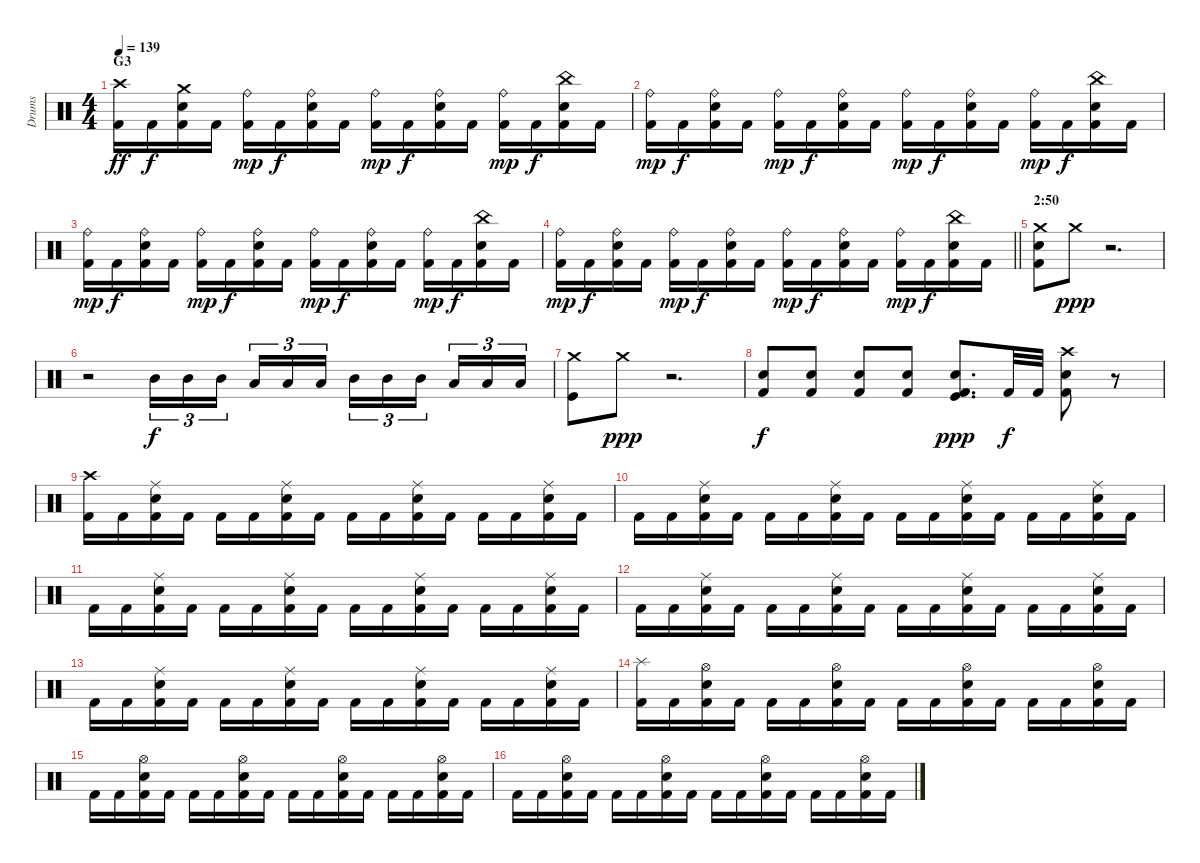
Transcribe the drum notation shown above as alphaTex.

\track ("Drums" "Drums") {instrument percussion}
\staff {score}
\articulation defaults
\ts (4 4)
\section ("" "G3")
\tempo 139
\clef neutral
\ks c
("Crash high (hit)" "Kick (hit) 2").16{dy ff} "Kick (hit) 2".16{dy f} ("Crash medium (hit)" "Electric Snare (hit)" "Kick (hit) 2").16 "Kick (hit) 2".16 ("Ride (bell)" "Kick (hit) 2").16{dy mp} "Kick (hit) 2".16{dy f} ("Ride (bell)" "Electric Snare (hit)" "Kick (hit) 2").16 "Kick (hit) 2".16 ("Ride (bell)" "Kick (hit) 2").16{dy mp} "Kick (hit) 2".16{dy f} ("Ride (bell)" "Electric Snare (hit)" "Kick (hit) 2").16 "Kick (hit) 2".16 ("Ride (bell)" "Kick (hit) 2").16{dy mp} "Kick (hit) 2".16{dy f} ("China (hit)" "Electric Snare (hit)" "Kick (hit) 2").16 "Kick (hit) 2".16 |
("Ride (bell)" "Kick (hit) 2").16{dy mp} "Kick (hit) 2".16{dy f} ("Ride (bell)" "Electric Snare (hit)" "Kick (hit) 2").16 "Kick (hit) 2".16 ("Ride (bell)" "Kick (hit) 2").16{dy mp} "Kick (hit) 2".16{dy f} ("Ride (bell)" "Electric Snare (hit)" "Kick (hit) 2").16 "Kick (hit) 2".16 ("Ride (bell)" "Kick (hit) 2").16{dy mp} "Kick (hit) 2".16{dy f} ("Ride (bell)" "Electric Snare (hit)" "Kick (hit) 2").16 "Kick (hit) 2".16 ("Ride (bell)" "Kick (hit) 2").16{dy mp} "Kick (hit) 2".16{dy f} ("China (hit)" "Electric Snare (hit)" "Kick (hit) 2").16 "Kick (hit) 2".16 |
("Ride (bell)" "Kick (hit) 2").16{dy mp} "Kick (hit) 2".16{dy f} ("Ride (bell)" "Electric Snare (hit)" "Kick (hit) 2").16 "Kick (hit) 2".16 ("Ride (bell)" "Kick (hit) 2").16{dy mp} "Kick (hit) 2".16{dy f} ("Ride (bell)" "Electric Snare (hit)" "Kick (hit) 2").16 "Kick (hit) 2".16 ("Ride (bell)" "Kick (hit) 2").16{dy mp} "Kick (hit) 2".16{dy f} ("Ride (bell)" "Electric Snare (hit)" "Kick (hit) 2").16 "Kick (hit) 2".16 ("Ride (bell)" "Kick (hit) 2").16{dy mp} "Kick (hit) 2".16{dy f} ("China (hit)" "Electric Snare (hit)" "Kick (hit) 2").16 "Kick (hit) 2".16 |
\barLineRight lightlight
("Ride (bell)" "Kick (hit) 2").16{dy mp} "Kick (hit) 2".16{dy f} ("Ride (bell)" "Electric Snare (hit)" "Kick (hit) 2").16 "Kick (hit) 2".16 ("Ride (bell)" "Kick (hit) 2").16{dy mp} "Kick (hit) 2".16{dy f} ("Ride (bell)" "Electric Snare (hit)" "Kick (hit) 2").16 "Kick (hit) 2".16 ("Ride (bell)" "Kick (hit) 2").16{dy mp} "Kick (hit) 2".16{dy f} ("Ride (bell)" "Electric Snare (hit)" "Kick (hit) 2").16 "Kick (hit) 2".16 ("Ride (bell)" "Kick (hit) 2").16{dy mp} "Kick (hit) 2".16{dy f} ("China (hit)" "Electric Snare (hit)" "Kick (hit) 2").16 "Kick (hit) 2".16 |
\section ("" "2:50")
("Crash medium (hit)" "Snare (hit) 2" "Kick (hit) 2").8 "Crash medium (hit)".8{dy ppp} r.2{d} |
r.2 "Mid Tom (hit)".16{tu (3 2) dy f} "Mid Tom (hit)".16{tu (3 2)} "Mid Tom (hit)".16{tu (3 2) beam splitsecondary} "Low Tom (hit)".16{tu (3 2)} "Low Tom (hit)".16{tu (3 2)} "Low Tom (hit)".16{tu (3 2)} "Mid Tom (hit)".16{tu (3 2)} "Mid Tom (hit)".16{tu (3 2)} "Mid Tom (hit)".16{tu (3 2) beam splitsecondary} "Low Tom (hit)".16{tu (3 2)} "Low Tom (hit)".16{tu (3 2)} "Low Tom (hit)".16{tu (3 2)} |
("Kick (hit)" "Crash medium (hit)").8 "Crash medium (hit)".8{dy ppp} r.2{d} |
("Kick (hit) 2" "Electric Snare (hit)").8{dy f} ("Kick (hit) 2" "Electric Snare (hit)").8 ("Kick (hit) 2" "Snare (hit) 2").8 ("Snare (hit) 2" "Kick (hit) 2").8 ("Snare (hit) 2" "Kick (hit)" "Kick (hit) 2").8{d dy ppp} "Kick (hit) 2".32{dy f} "Kick (hit) 2".32 ("Snare (hit) 2" "Crash high (hit)" "Kick (hit) 2").8 r.8 |
("Crash high (hit)" "Kick (hit) 2").16 "Kick (hit) 2".16 ("Ride (middle)" "Electric Snare (hit)" "Kick (hit) 2").16 "Kick (hit) 2".16 "Kick (hit) 2".16 "Kick (hit) 2".16 ("Ride (middle)" "Electric Snare (hit)" "Kick (hit) 2").16 "Kick (hit) 2".16 "Kick (hit) 2".16 "Kick (hit) 2".16 ("Ride (middle)" "Electric Snare (hit)" "Kick (hit) 2").16 "Kick (hit) 2".16 "Kick (hit) 2".16 "Kick (hit) 2".16 ("Ride (middle)" "Electric Snare (hit)" "Kick (hit) 2").16 "Kick (hit) 2".16 |
"Kick (hit) 2".16 "Kick (hit) 2".16 ("Ride (middle)" "Electric Snare (hit)" "Kick (hit) 2").16 "Kick (hit) 2".16 "Kick (hit) 2".16 "Kick (hit) 2".16 ("Ride (middle)" "Electric Snare (hit)" "Kick (hit) 2").16 "Kick (hit) 2".16 "Kick (hit) 2".16 "Kick (hit) 2".16 ("Ride (middle)" "Electric Snare (hit)" "Kick (hit) 2").16 "Kick (hit) 2".16 "Kick (hit) 2".16 "Kick (hit) 2".16 ("Ride (middle)" "Electric Snare (hit)" "Kick (hit) 2").16 "Kick (hit) 2".16 |
"Kick (hit) 2".16 "Kick (hit) 2".16 ("Ride (middle)" "Electric Snare (hit)" "Kick (hit) 2").16 "Kick (hit) 2".16 "Kick (hit) 2".16 "Kick (hit) 2".16 ("Ride (middle)" "Electric Snare (hit)" "Kick (hit) 2").16 "Kick (hit) 2".16 "Kick (hit) 2".16 "Kick (hit) 2".16 ("Ride (middle)" "Electric Snare (hit)" "Kick (hit) 2").16 "Kick (hit) 2".16 "Kick (hit) 2".16 "Kick (hit) 2".16 ("Ride (middle)" "Electric Snare (hit)" "Kick (hit) 2").16 "Kick (hit) 2".16 |
"Kick (hit) 2".16 "Kick (hit) 2".16 ("Ride (middle)" "Electric Snare (hit)" "Kick (hit) 2").16 "Kick (hit) 2".16 "Kick (hit) 2".16 "Kick (hit) 2".16 ("Ride (middle)" "Electric Snare (hit)" "Kick (hit) 2").16 "Kick (hit) 2".16 "Kick (hit) 2".16 "Kick (hit) 2".16 ("Ride (middle)" "Electric Snare (hit)" "Kick (hit) 2").16 "Kick (hit) 2".16 "Kick (hit) 2".16 "Kick (hit) 2".16 ("Ride (middle)" "Electric Snare (hit)" "Kick (hit) 2").16 "Kick (hit) 2".16 |
"Kick (hit) 2".16 "Kick (hit) 2".16 ("Ride (middle)" "Electric Snare (hit)" "Kick (hit) 2").16 "Kick (hit) 2".16 "Kick (hit) 2".16 "Kick (hit) 2".16 ("Ride (middle)" "Electric Snare (hit)" "Kick (hit) 2").16 "Kick (hit) 2".16 "Kick (hit) 2".16 "Kick (hit) 2".16 ("Ride (middle)" "Electric Snare (hit)" "Kick (hit) 2").16 "Kick (hit) 2".16 "Kick (hit) 2".16 "Kick (hit) 2".16 ("Ride (middle)" "Electric Snare (hit)" "Kick (hit) 2").16 "Kick (hit) 2".16 |
("Splash (hit)" "Kick (hit) 2").16 "Kick (hit) 2".16 ("Hi-Hat (open)" "Electric Snare (hit)" "Kick (hit) 2").16 "Kick (hit) 2".16 "Kick (hit) 2".16 "Kick (hit) 2".16 ("Hi-Hat (open)" "Electric Snare (hit)" "Kick (hit) 2").16 "Kick (hit) 2".16 "Kick (hit) 2".16 "Kick (hit) 2".16 ("Hi-Hat (open)" "Electric Snare (hit)" "Kick (hit) 2").16 "Kick (hit) 2".16 "Kick (hit) 2".16 "Kick (hit) 2".16 ("Hi-Hat (open)" "Electric Snare (hit)" "Kick (hit) 2").16 "Kick (hit) 2".16 |
"Kick (hit) 2".16 "Kick (hit) 2".16 ("Hi-Hat (open)" "Electric Snare (hit)" "Kick (hit) 2").16 "Kick (hit) 2".16 "Kick (hit) 2".16 "Kick (hit) 2".16 ("Hi-Hat (open)" "Electric Snare (hit)" "Kick (hit) 2").16 "Kick (hit) 2".16 "Kick (hit) 2".16 "Kick (hit) 2".16 ("Hi-Hat (open)" "Electric Snare (hit)" "Kick (hit) 2").16 "Kick (hit) 2".16 "Kick (hit) 2".16 "Kick (hit) 2".16 ("Hi-Hat (open)" "Electric Snare (hit)" "Kick (hit) 2").16 "Kick (hit) 2".16 |
"Kick (hit) 2".16 "Kick (hit) 2".16 ("Hi-Hat (open)" "Electric Snare (hit)" "Kick (hit) 2").16 "Kick (hit) 2".16 "Kick (hit) 2".16 "Kick (hit) 2".16 ("Hi-Hat (open)" "Electric Snare (hit)" "Kick (hit) 2").16 "Kick (hit) 2".16 "Kick (hit) 2".16 "Kick (hit) 2".16 ("Hi-Hat (open)" "Electric Snare (hit)" "Kick (hit) 2").16 "Kick (hit) 2".16 "Kick (hit) 2".16 "Kick (hit) 2".16 ("Hi-Hat (open)" "Electric Snare (hit)" "Kick (hit) 2").16 "Kick (hit) 2".16
